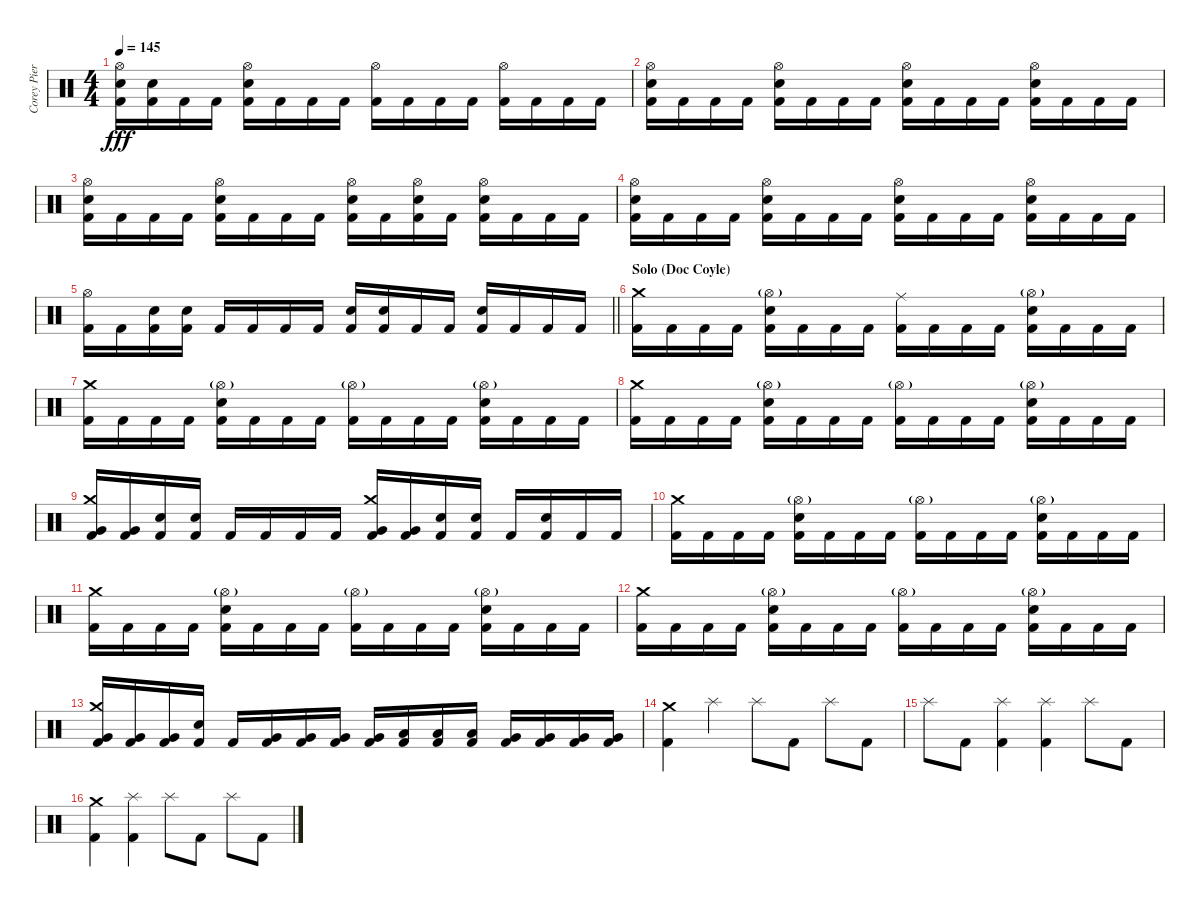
\track ("Corey Pierce" "Corey Pier") {instrument percussion}
\staff {score}
\articulation defaults
\ts (4 4)
\tempo 145
\clef neutral
\ks c
("Hi-Hat (open)" "Electric Snare (hit)" "Kick (hit) 2").16{dy fff} ("Electric Snare (hit)" "Kick (hit) 2").16 "Kick (hit) 2".16 "Kick (hit) 2".16 ("Hi-Hat (open)" "Electric Snare (hit)" "Kick (hit) 2").16 "Kick (hit) 2".16 "Kick (hit) 2".16 "Kick (hit) 2".16 ("Hi-Hat (open)" "Kick (hit) 2").16 "Kick (hit) 2".16 "Kick (hit) 2".16 "Kick (hit) 2".16 ("Hi-Hat (open)" "Kick (hit) 2").16 "Kick (hit) 2".16 "Kick (hit) 2".16 "Kick (hit) 2".16 |
("Hi-Hat (open)" "Electric Snare (hit)" "Kick (hit) 2").16 "Kick (hit) 2".16 "Kick (hit) 2".16 "Kick (hit) 2".16 ("Hi-Hat (open)" "Electric Snare (hit)" "Kick (hit) 2").16 "Kick (hit) 2".16 "Kick (hit) 2".16 "Kick (hit) 2".16 ("Hi-Hat (open)" "Electric Snare (hit)" "Kick (hit) 2").16 "Kick (hit) 2".16 "Kick (hit) 2".16 "Kick (hit) 2".16 ("Hi-Hat (open)" "Electric Snare (hit)" "Kick (hit) 2").16 "Kick (hit) 2".16 "Kick (hit) 2".16 "Kick (hit) 2".16 |
("Hi-Hat (open)" "Electric Snare (hit)" "Kick (hit) 2").16 "Kick (hit) 2".16 "Kick (hit) 2".16 "Kick (hit) 2".16 ("Hi-Hat (open)" "Electric Snare (hit)" "Kick (hit) 2").16 "Kick (hit) 2".16 "Kick (hit) 2".16 "Kick (hit) 2".16 ("Hi-Hat (open)" "Electric Snare (hit)" "Kick (hit) 2").16 "Kick (hit) 2".16 ("Hi-Hat (open)" "Electric Snare (hit)" "Kick (hit) 2").16 "Kick (hit) 2".16 ("Hi-Hat (open)" "Electric Snare (hit)" "Kick (hit) 2").16 "Kick (hit) 2".16 "Kick (hit) 2".16 "Kick (hit) 2".16 |
("Hi-Hat (open)" "Electric Snare (hit)" "Kick (hit) 2").16 "Kick (hit) 2".16 "Kick (hit) 2".16 "Kick (hit) 2".16 ("Hi-Hat (open)" "Electric Snare (hit)" "Kick (hit) 2").16 "Kick (hit) 2".16 "Kick (hit) 2".16 "Kick (hit) 2".16 ("Hi-Hat (open)" "Electric Snare (hit)" "Kick (hit) 2").16 "Kick (hit) 2".16 "Kick (hit) 2".16 "Kick (hit) 2".16 ("Hi-Hat (open)" "Electric Snare (hit)" "Kick (hit) 2").16 "Kick (hit) 2".16 "Kick (hit) 2".16 "Kick (hit) 2".16 |
\barLineRight lightlight
("Hi-Hat (open)" "Kick (hit) 2").16 "Kick (hit) 2".16 ("Electric Snare (hit)" "Kick (hit) 2").16 ("Electric Snare (hit)" "Kick (hit) 2").16 "Kick (hit) 2".16 "Kick (hit) 2".16 "Kick (hit) 2".16 "Kick (hit) 2".16 ("Electric Snare (hit)" "Kick (hit) 2").16 ("Electric Snare (hit)" "Kick (hit) 2").16 "Kick (hit) 2".16 "Kick (hit) 2".16 ("Electric Snare (hit)" "Kick (hit) 2").16 "Kick (hit) 2".16 "Kick (hit) 2".16 "Kick (hit) 2".16 |
\section ("" "Solo (Doc Coyle)")
("Crash medium (hit)" "Kick (hit) 2").16 "Kick (hit) 2".16 "Kick (hit) 2".16 "Kick (hit) 2".16 ("Hi-Hat (open)"{g} "Electric Snare (hit)" "Kick (hit) 2").16 "Kick (hit) 2".16 "Kick (hit) 2".16 "Kick (hit) 2".16 ("Ride (middle)" "Kick (hit) 2").16 "Kick (hit) 2".16 "Kick (hit) 2".16 "Kick (hit) 2".16 ("Hi-Hat (open)"{g} "Electric Snare (hit)" "Kick (hit) 2").16 "Kick (hit) 2".16 "Kick (hit) 2".16 "Kick (hit) 2".16 |
("Crash medium (hit)" "Kick (hit) 2").16 "Kick (hit) 2".16 "Kick (hit) 2".16 "Kick (hit) 2".16 ("Hi-Hat (open)"{g} "Electric Snare (hit)" "Kick (hit) 2").16 "Kick (hit) 2".16 "Kick (hit) 2".16 "Kick (hit) 2".16 ("Hi-Hat (open)"{g} "Kick (hit) 2").16 "Kick (hit) 2".16 "Kick (hit) 2".16 "Kick (hit) 2".16 ("Hi-Hat (open)"{g} "Electric Snare (hit)" "Kick (hit) 2").16 "Kick (hit) 2".16 "Kick (hit) 2".16 "Kick (hit) 2".16 |
("Crash medium (hit)" "Kick (hit) 2").16 "Kick (hit) 2".16 "Kick (hit) 2".16 "Kick (hit) 2".16 ("Hi-Hat (open)"{g} "Electric Snare (hit)" "Kick (hit) 2").16 "Kick (hit) 2".16 "Kick (hit) 2".16 "Kick (hit) 2".16 ("Hi-Hat (open)"{g} "Kick (hit) 2").16 "Kick (hit) 2".16 "Kick (hit) 2".16 "Kick (hit) 2".16 ("Hi-Hat (open)"{g} "Electric Snare (hit)" "Kick (hit) 2").16 "Kick (hit) 2".16 "Kick (hit) 2".16 "Kick (hit) 2".16 |
("Crash medium (hit)" "Very Low Tom (hit)" "Kick (hit) 2").16 ("Very Low Tom (hit)" "Kick (hit) 2").16 ("Electric Snare (hit)" "Kick (hit) 2").16 ("Electric Snare (hit)" "Kick (hit) 2").16 "Kick (hit) 2".16 "Kick (hit) 2".16 "Kick (hit) 2".16 "Kick (hit) 2".16 ("Crash medium (hit)" "Very Low Tom (hit)" "Kick (hit) 2").16 ("Very Low Tom (hit)" "Kick (hit) 2").16 ("Electric Snare (hit)" "Kick (hit) 2").16 ("Electric Snare (hit)" "Kick (hit) 2").16 "Kick (hit) 2".16 ("Electric Snare (hit)" "Kick (hit) 2").16 "Kick (hit) 2".16 "Kick (hit) 2".16 |
("Crash medium (hit)" "Kick (hit) 2").16 "Kick (hit) 2".16 "Kick (hit) 2".16 "Kick (hit) 2".16 ("Hi-Hat (open)"{g} "Electric Snare (hit)" "Kick (hit) 2").16 "Kick (hit) 2".16 "Kick (hit) 2".16 "Kick (hit) 2".16 ("Hi-Hat (open)"{g} "Kick (hit) 2").16 "Kick (hit) 2".16 "Kick (hit) 2".16 "Kick (hit) 2".16 ("Hi-Hat (open)"{g} "Electric Snare (hit)" "Kick (hit) 2").16 "Kick (hit) 2".16 "Kick (hit) 2".16 "Kick (hit) 2".16 |
("Crash medium (hit)" "Kick (hit) 2").16 "Kick (hit) 2".16 "Kick (hit) 2".16 "Kick (hit) 2".16 ("Hi-Hat (open)"{g} "Electric Snare (hit)" "Kick (hit) 2").16 "Kick (hit) 2".16 "Kick (hit) 2".16 "Kick (hit) 2".16 ("Hi-Hat (open)"{g} "Kick (hit) 2").16 "Kick (hit) 2".16 "Kick (hit) 2".16 "Kick (hit) 2".16 ("Hi-Hat (open)"{g} "Electric Snare (hit)" "Kick (hit) 2").16 "Kick (hit) 2".16 "Kick (hit) 2".16 "Kick (hit) 2".16 |
("Crash medium (hit)" "Kick (hit) 2").16 "Kick (hit) 2".16 "Kick (hit) 2".16 "Kick (hit) 2".16 ("Hi-Hat (open)"{g} "Electric Snare (hit)" "Kick (hit) 2").16 "Kick (hit) 2".16 "Kick (hit) 2".16 "Kick (hit) 2".16 ("Hi-Hat (open)"{g} "Kick (hit) 2").16 "Kick (hit) 2".16 "Kick (hit) 2".16 "Kick (hit) 2".16 ("Hi-Hat (open)"{g} "Electric Snare (hit)" "Kick (hit) 2").16 "Kick (hit) 2".16 "Kick (hit) 2".16 "Kick (hit) 2".16 |
("Crash medium (hit)" "Very Low Tom (hit)" "Kick (hit) 2").16 ("Very Low Tom (hit)" "Kick (hit) 2").16 ("Very Low Tom (hit)" "Kick (hit) 2").16 ("Electric Snare (hit)" "Kick (hit) 2").16 "Kick (hit) 2".16 ("Very Low Tom (hit)" "Kick (hit) 2").16 ("Very Low Tom (hit)" "Kick (hit) 2").16 ("Very Low Tom (hit)" "Kick (hit) 2").16 ("Very Low Tom (hit)" "Kick (hit) 2").16 ("Low Tom (hit)" "Kick (hit) 2").16 ("Low Tom (hit)" "Kick (hit) 2").16 ("Low Tom (hit)" "Kick (hit) 2").16 ("Very Low Tom (hit)" "Kick (hit) 2").16 ("Very Low Tom (hit)" "Kick (hit) 2").16 ("Very Low Tom (hit)" "Kick (hit) 2").16 ("Very Low Tom (hit)" "Kick (hit) 2").16 |
("Crash medium (hit)" "Kick (hit) 2").4 "Splash (hit)".4 "Splash (hit)".8 "Kick (hit) 2".8 "Splash (hit)".8 "Kick (hit) 2".8 |
"Splash (hit)".8 "Kick (hit) 2".8 ("Splash (hit)" "Kick (hit) 2").4 ("Splash (hit)" "Kick (hit) 2").4 "Splash (hit)".8 "Kick (hit) 2".8 |
("Crash medium (hit)" "Kick (hit) 2").4 ("Splash (hit)" "Kick (hit) 2").4 "Splash (hit)".8 "Kick (hit) 2".8 "Splash (hit)".8 "Kick (hit) 2".8
